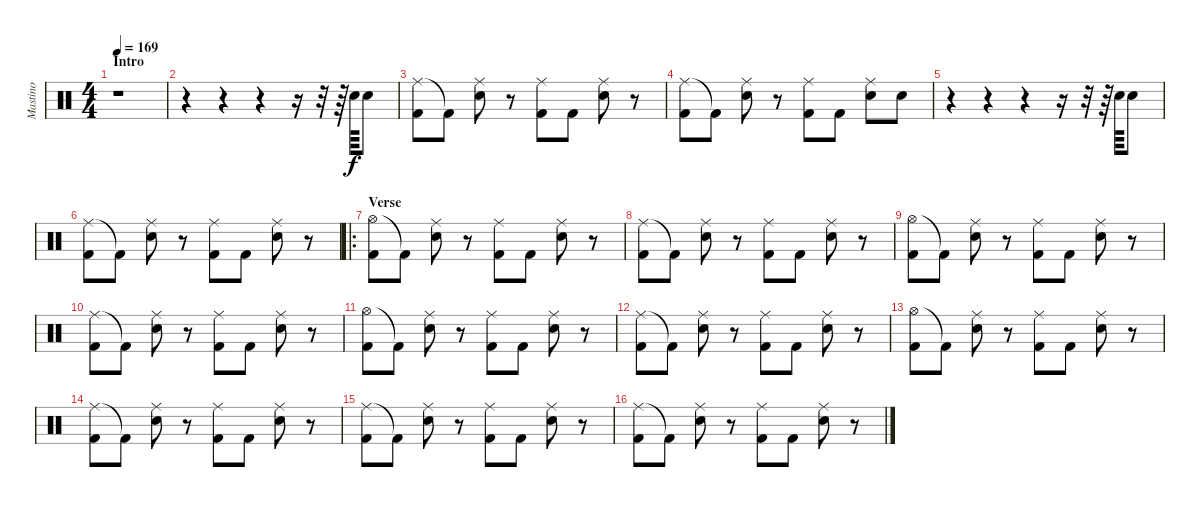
\track ("Mastino" "Mastino") {instrument percussion}
\staff {score}
\articulation defaults
\ts (4 4)
\section ("" "Intro")
\tempo 169
\clef neutral
\ks c
r.1{dy f} |
r.4 r.4 r.4 r.16 r.32 r.64 "Electric Snare (hit)".64 "Electric Snare (hit)".8 |
("Ride (middle)" "Kick (hit) 2").8 "Kick (hit) 2"{t}.8 ("Ride (middle)" "Electric Snare (hit)").8 r.8 ("Ride (middle)" "Kick (hit) 2").8 "Kick (hit) 2".8 ("Ride (middle)" "Electric Snare (hit)").8 r.8 |
("Ride (middle)" "Kick (hit) 2").8 "Kick (hit) 2"{t}.8 ("Ride (middle)" "Electric Snare (hit)").8 r.8 ("Ride (middle)" "Kick (hit) 2").8 "Kick (hit) 2".8 ("Ride (middle)" "Electric Snare (hit)").8 "Electric Snare (hit)".8 |
r.4 r.4 r.4 r.16 r.32 r.64 "Electric Snare (hit)".64 "Electric Snare (hit)".8 |
("Ride (middle)" "Kick (hit) 2").8 "Kick (hit) 2"{t}.8 ("Ride (middle)" "Electric Snare (hit)").8 r.8 ("Ride (middle)" "Kick (hit) 2").8 "Kick (hit) 2".8 ("Ride (middle)" "Electric Snare (hit)").8 r.8 |
\ro
\section ("" "Verse")
("Hi-Hat (open)" "Kick (hit) 2").8 "Kick (hit) 2"{t}.8 ("Ride (middle)" "Electric Snare (hit)").8 r.8 ("Ride (middle)" "Kick (hit) 2").8 "Kick (hit) 2".8 ("Ride (middle)" "Electric Snare (hit)").8 r.8 |
("Ride (middle)" "Kick (hit) 2").8 "Kick (hit) 2"{t}.8 ("Ride (middle)" "Electric Snare (hit)").8 r.8 ("Ride (middle)" "Kick (hit) 2").8 "Kick (hit) 2".8 ("Ride (middle)" "Electric Snare (hit)").8 r.8 |
("Hi-Hat (open)" "Kick (hit) 2").8 "Kick (hit) 2"{t}.8 ("Ride (middle)" "Electric Snare (hit)").8 r.8 ("Ride (middle)" "Kick (hit) 2").8 "Kick (hit) 2".8 ("Ride (middle)" "Electric Snare (hit)").8 r.8 |
("Ride (middle)" "Kick (hit) 2").8 "Kick (hit) 2"{t}.8 ("Ride (middle)" "Electric Snare (hit)").8 r.8 ("Ride (middle)" "Kick (hit) 2").8 "Kick (hit) 2".8 ("Ride (middle)" "Electric Snare (hit)").8 r.8 |
("Hi-Hat (open)" "Kick (hit) 2").8 "Kick (hit) 2"{t}.8 ("Ride (middle)" "Electric Snare (hit)").8 r.8 ("Ride (middle)" "Kick (hit) 2").8 "Kick (hit) 2".8 ("Ride (middle)" "Electric Snare (hit)").8 r.8 |
("Ride (middle)" "Kick (hit) 2").8 "Kick (hit) 2"{t}.8 ("Ride (middle)" "Electric Snare (hit)").8 r.8 ("Ride (middle)" "Kick (hit) 2").8 "Kick (hit) 2".8 ("Ride (middle)" "Electric Snare (hit)").8 r.8 |
("Hi-Hat (open)" "Kick (hit) 2").8 "Kick (hit) 2"{t}.8 ("Ride (middle)" "Electric Snare (hit)").8 r.8 ("Ride (middle)" "Kick (hit) 2").8 "Kick (hit) 2".8 ("Ride (middle)" "Electric Snare (hit)").8 r.8 |
("Ride (middle)" "Kick (hit) 2").8 "Kick (hit) 2"{t}.8 ("Ride (middle)" "Electric Snare (hit)").8 r.8 ("Ride (middle)" "Kick (hit) 2").8 "Kick (hit) 2".8 ("Ride (middle)" "Electric Snare (hit)").8 r.8 |
("Ride (middle)" "Kick (hit) 2").8 "Kick (hit) 2"{t}.8 ("Ride (middle)" "Electric Snare (hit)").8 r.8 ("Ride (middle)" "Kick (hit) 2").8 "Kick (hit) 2".8 ("Ride (middle)" "Electric Snare (hit)").8 r.8 |
("Ride (middle)" "Kick (hit) 2").8 "Kick (hit) 2"{t}.8 ("Ride (middle)" "Electric Snare (hit)").8 r.8 ("Ride (middle)" "Kick (hit) 2").8 "Kick (hit) 2".8 ("Ride (middle)" "Electric Snare (hit)").8 r.8
